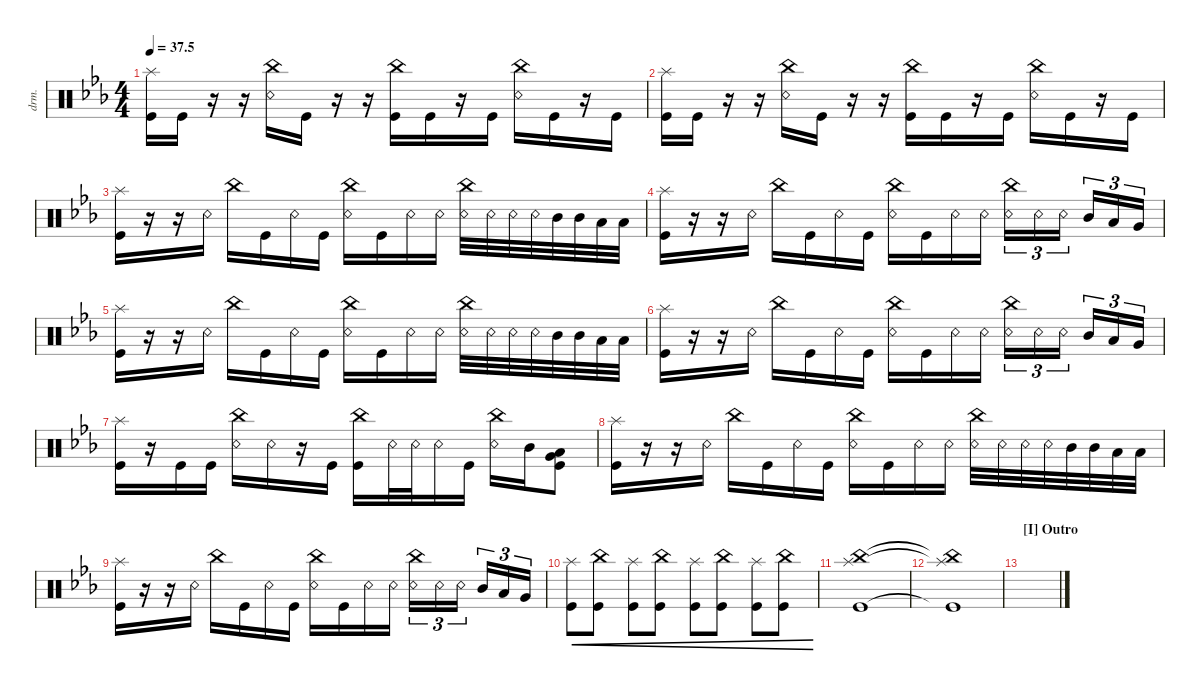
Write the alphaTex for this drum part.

\defaultSystemsLayout 4
\hideDynamics
\bracketExtendMode nobrackets
\otherSystemsTrackNameOrientation horizontal
\track ("Drumkit" "drm.") {instrument percussion}
\staff {score}
\articulation defaults
\ts (4 4)
\tempo
37.5
\accidentals auto
\clef neutral
\ottava regular
\simile none
\ks cminor
("Kick (hit)" "Splash (hit)").16{dy ff} "Kick (hit)".16 r.16 r.16 ("China (hit)" "Snare (rim shot)").16 "Kick (hit)".16 r.16 r.16 ("China (hit)" "Kick (hit)").16 "Kick (hit)".16 r.16 "Kick (hit)".16 ("China (hit)" "Snare (rim shot)").16 "Kick (hit)".16 r.16 "Kick (hit)".16 |
("Kick (hit)" "Splash (hit)").16 "Kick (hit)".16 r.16 r.16 ("China (hit)" "Snare (rim shot)").16 "Kick (hit)".16 r.16 r.16 ("China (hit)" "Kick (hit)").16 "Kick (hit)".16 r.16 "Kick (hit)".16 ("China (hit)" "Snare (rim shot)").16 "Kick (hit)".16 r.16 "Kick (hit)".16 |
("Splash (hit)" "Kick (hit)").16 r.16 r.16 "Snare (rim shot)".16 "China (hit)".16 "Kick (hit)".16 "Snare (rim shot)".16 "Kick (hit)".16 ("China (hit)" "Snare (rim shot)").16 "Kick (hit)".16 "Snare (rim shot)".16 "Snare (rim shot)".16 ("China (hit)" "Snare (rim shot)").32 "Snare (rim shot)".32 "Snare (rim shot)".32 "Snare (rim shot)".32 "Mid Tom (hit)".32 "Mid Tom (hit)".32 "Low Tom (hit)".32 "Low Tom (hit)".32 |
("Splash (hit)" "Kick (hit)").16 r.16 r.16 "Snare (rim shot)".16 "China (hit)".16 "Kick (hit)".16 "Snare (rim shot)".16 "Kick (hit)".16 ("China (hit)" "Snare (rim shot)").16 "Kick (hit)".16 "Snare (rim shot)".16 "Snare (rim shot)".16 ("China (hit)" "Snare (rim shot)").16{tu (3 2)} "Snare (rim shot)".16{tu (3 2)} "Snare (rim shot)".16{tu (3 2)} "Mid Tom (hit)".16{tu (3 2)} "Low Tom (hit)".16{tu (3 2)} "Very Low Tom (hit)".16{tu (3 2)} |
("Splash (hit)" "Kick (hit)").16 r.16 r.16 "Snare (rim shot)".16 "China (hit)".16 "Kick (hit)".16 "Snare (rim shot)".16 "Kick (hit)".16 ("China (hit)" "Snare (rim shot)").16 "Kick (hit)".16 "Snare (rim shot)".16 "Snare (rim shot)".16 ("China (hit)" "Snare (rim shot)").32 "Snare (rim shot)".32 "Snare (rim shot)".32 "Snare (rim shot)".32 "Mid Tom (hit)".32 "Mid Tom (hit)".32 "Low Tom (hit)".32 "Low Tom (hit)".32 |
("Splash (hit)" "Kick (hit)").16 r.16 r.16 "Snare (rim shot)".16 "China (hit)".16 "Kick (hit)".16 "Snare (rim shot)".16 "Kick (hit)".16 ("China (hit)" "Snare (rim shot)").16 "Kick (hit)".16 "Snare (rim shot)".16 "Snare (rim shot)".16 ("China (hit)" "Snare (rim shot)").16{tu (3 2)} "Snare (rim shot)".16{tu (3 2)} "Snare (rim shot)".16{tu (3 2)} "Mid Tom (hit)".16{tu (3 2)} "Low Tom (hit)".16{tu (3 2)} "Very Low Tom (hit)".16{tu (3 2)} |
("Splash (hit)" "Kick (hit)").16 r.16 "Kick (hit)".16 "Kick (hit)".16 ("China (hit)" "Snare (rim shot)").16 "Snare (rim shot)".16 r.16 "Kick (hit)".16 ("Kick (hit)" "China (hit)").16 "Snare (rim shot)".32 "Snare (rim shot)".32 "Snare (rim shot)".16 "Kick (hit)".16 ("Snare (rim shot)" "China (hit)").16 "Mid Tom (hit)".16 ("Very Low Tom (hit)" "Kick (hit)" "Low Tom (hit)").8 |
("Splash (hit)" "Kick (hit)").16 r.16 r.16 "Snare (rim shot)".16 "China (hit)".16 "Kick (hit)".16 "Snare (rim shot)".16 "Kick (hit)".16 ("China (hit)" "Snare (rim shot)").16 "Kick (hit)".16 "Snare (rim shot)".16 "Snare (rim shot)".16 ("China (hit)" "Snare (rim shot)").32 "Snare (rim shot)".32 "Snare (rim shot)".32 "Snare (rim shot)".32 "Mid Tom (hit)".32 "Mid Tom (hit)".32 "Low Tom (hit)".32 "Low Tom (hit)".32 |
("Splash (hit)" "Kick (hit)").16 r.16 r.16 "Snare (rim shot)".16 "China (hit)".16 "Kick (hit)".16 "Snare (rim shot)".16 "Kick (hit)".16 ("China (hit)" "Snare (rim shot)").16 "Kick (hit)".16 "Snare (rim shot)".16 "Snare (rim shot)".16 ("China (hit)" "Snare (rim shot)").16{tu (3 2)} "Snare (rim shot)".16{tu (3 2)} "Snare (rim shot)".16{tu (3 2)} "Mid Tom (hit)".16{tu (3 2)} "Low Tom (hit)".16{tu (3 2)} "Very Low Tom (hit)".16{tu (3 2)} |
("Splash (hit)" "Kick (hit)").8{cre dy mf} ("Kick (hit)" "China (hit)").8{cre} ("Kick (hit)" "Splash (hit)").8{cre} ("Kick (hit)" "China (hit)").8{cre} ("Kick (hit)" "Splash (hit)").8{cre dy f} ("Kick (hit)" "China (hit)").8{cre} ("Kick (hit)" "Splash (hit)").8{cre dy ff} ("Kick (hit)" "China (hit)").8{cre} |
("Kick (hit)" "Splash (hit)" "China (hit)").1 |
("Kick (hit)"{t} "Splash (hit)"{t} "China (hit)"{t}).1 |
\section ("I" "Outro")
